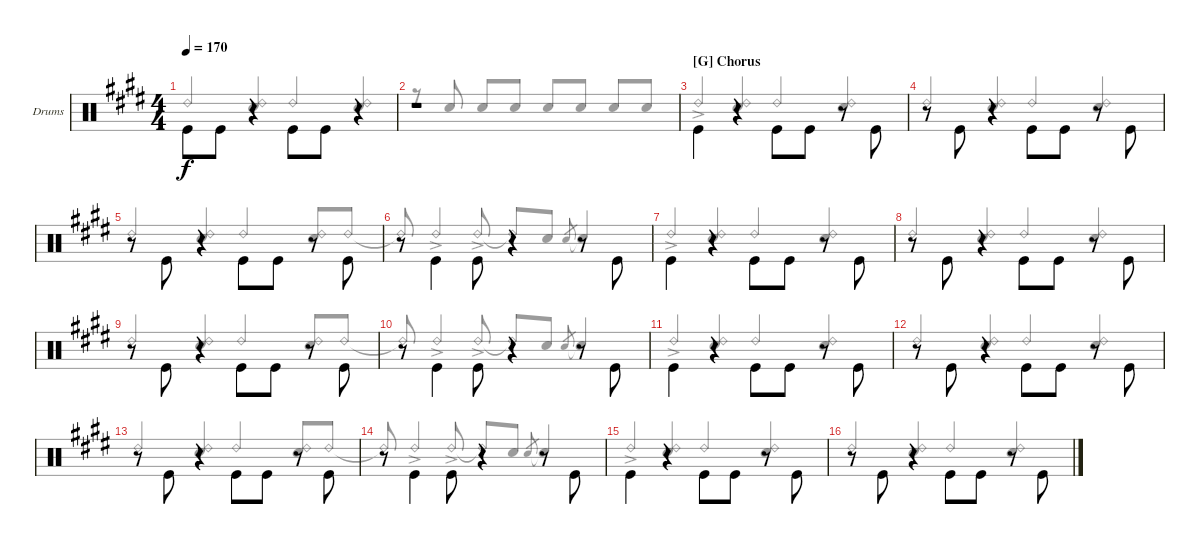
\bracketExtendMode groupsimilarinstruments
\firstSystemTrackNameOrientation horizontal
\otherSystemsTrackNameOrientation horizontal
\track ("Drums" "Drums") {instrument percussion}
\staff {score}
\articulation defaults
\voice
\ts (4 4)
\tempo 170
\clef neutral
\scale
1.06557
\ks e "Kick (hit)".8{dy f beam invert} "Kick (hit)".8
r.4 "Kick (hit)".8{beam invert} "Kick (hit)".8 r.4 |
\scale
0.934426 r.1 |
\section ("G" "Chorus")
\scale
1.06557 "Kick (hit)".4{beam invert} r.4{beam invert} "Kick (hit)".8{beam invert} "Kick (hit)".8 r.8 "Kick (hit)".8{beam invert} |
\scale
0.934426 r.8 "Kick (hit)".8{beam invert} r.4 "Kick (hit)".8{beam invert} "Kick (hit)".8 r.8 "Kick (hit)".8{beam invert} |
\scale
1.06557 r.8 "Kick (hit)".8{beam invert} r.4 "Kick (hit)".8{beam invert} "Kick (hit)".8 r.8 "Kick (hit)".8{beam invert} |
\scale
0.934426 r.8 "Kick (hit)".4{beam invert} "Kick (hit)".8{beam invert} r.4 r.8 "Kick (hit)".8{beam invert} |
\scale
1.06557 "Kick (hit)".4{beam invert} r.4{beam invert} "Kick (hit)".8{beam invert} "Kick (hit)".8 r.8 "Kick (hit)".8{beam invert} |
\scale
0.934426 r.8 "Kick (hit)".8{beam invert} r.4 "Kick (hit)".8{beam invert} "Kick (hit)".8 r.8 "Kick (hit)".8{beam invert} |
\scale
1.06557 r.8 "Kick (hit)".8{beam invert} r.4 "Kick (hit)".8{beam invert} "Kick (hit)".8 r.8 "Kick (hit)".8{beam invert} |
\scale
0.934426 r.8 "Kick (hit)".4{beam invert} "Kick (hit)".8{beam invert} r.4 r.8 "Kick (hit)".8{beam invert} |
\scale
1.06557 "Kick (hit)".4{beam invert} r.4{beam invert} "Kick (hit)".8{beam invert} "Kick (hit)".8 r.8 "Kick (hit)".8{beam invert} |
\scale
0.934426 r.8 "Kick (hit)".8{beam invert} r.4 "Kick (hit)".8{beam invert} "Kick (hit)".8 r.8 "Kick (hit)".8{beam invert} |
\scale
1.06557 r.8 "Kick (hit)".8{beam invert} r.4 "Kick (hit)".8{beam invert} "Kick (hit)".8 r.8 "Kick (hit)".8{beam invert} |
\scale
0.934426 r.8 "Kick (hit)".4{beam invert} "Kick (hit)".8{beam invert} r.4 r.8 "Kick (hit)".8{beam invert} |
\scale
1.06557 "Kick (hit)".4{beam invert} r.4{beam invert} "Kick (hit)".8{beam invert} "Kick (hit)".8 r.8 "Kick (hit)".8{beam invert} |
\scale
0.934426 r.8 "Kick (hit)".8{beam invert} r.4 "Kick (hit)".8{beam invert} "Kick (hit)".8 r.8 "Kick (hit)".8{beam invert}
\voice
\clef neutral
\ottava regular
\simile none
\scale
1.06557
\ks e "Ride (bell) 2".4{dy f beam invert}
("Ride (bell) 2" "Snare (hit) 2").4{beam invert} "Ride (bell) 2".4{beam invert} ("Ride (bell) 2" "Snare (hit) 2").4{beam invert} |
\scale
0.934426 r.8 "Snare (hit) 2".8{beam invert} "Snare (hit) 2".8{beam invert} "Snare (hit) 2".8 "Snare (hit) 2".8{beam invert} "Snare (hit) 2".8 "Snare (hit) 2".8{beam invert} "Snare (hit) 2".8 |
\scale
1.06557 "Ride (bell) 2"{ac}.4{beam invert} ("Ride (bell) 2" "Snare (hit) 2").4{beam invert} "Ride (bell) 2".4{beam invert} ("Ride (bell) 2" "Snare (hit) 2").4{beam invert} |
\scale
0.934426 "Ride (bell) 2".4{beam invert} ("Ride (bell) 2" "Snare (hit) 2").4{beam invert} "Ride (bell) 2".4{beam invert} ("Ride (bell) 2" "Snare (hit) 2").4{beam invert} |
\scale
1.06557 "Ride (bell) 2".4{beam invert} ("Ride (bell) 2" "Snare (hit) 2").4{beam invert} "Ride (bell) 2".4{beam invert} ("Ride (bell) 2" "Snare (hit) 2").8{beam invert} "Ride (bell) 2".8 |
\scale
0.934426 "Ride (bell) 2"{t}.8{beam invert} "Ride (bell) 2"{ac}.4{beam invert} "Ride (bell) 2"{ac}.8{beam invert} "Ride (bell) 2"{t}.8{beam invert} "Snare (hit) 2".8 "Snare (hit) 2".8{gr beam invert} "Snare (hit) 2"{t}.4{beam invert} |
\scale
1.06557 "Ride (bell) 2"{ac}.4{beam invert} ("Ride (bell) 2" "Snare (hit) 2").4{beam invert} "Ride (bell) 2".4{beam invert} ("Ride (bell) 2" "Snare (hit) 2").4{beam invert} |
\scale
0.934426 "Ride (bell) 2".4{beam invert} ("Ride (bell) 2" "Snare (hit) 2").4{beam invert} "Ride (bell) 2".4{beam invert} ("Ride (bell) 2" "Snare (hit) 2").4{beam invert} |
\scale
1.06557 "Ride (bell) 2".4{beam invert} ("Ride (bell) 2" "Snare (hit) 2").4{beam invert} "Ride (bell) 2".4{beam invert} ("Ride (bell) 2" "Snare (hit) 2").8{beam invert} "Ride (bell) 2".8 |
\scale
0.934426 "Ride (bell) 2"{t}.8{beam invert} "Ride (bell) 2"{ac}.4{beam invert} "Ride (bell) 2"{ac}.8{beam invert} "Ride (bell) 2"{t}.8{beam invert} "Snare (hit) 2".8 "Snare (hit) 2".8{gr beam invert} "Snare (hit) 2"{t}.4{beam invert} |
\scale
1.06557 "Ride (bell) 2"{ac}.4{beam invert} ("Ride (bell) 2" "Snare (hit) 2").4{beam invert} "Ride (bell) 2".4{beam invert} ("Ride (bell) 2" "Snare (hit) 2").4{beam invert} |
\scale
0.934426 "Ride (bell) 2".4{beam invert} ("Ride (bell) 2" "Snare (hit) 2").4{beam invert} "Ride (bell) 2".4{beam invert} ("Ride (bell) 2" "Snare (hit) 2").4{beam invert} |
\scale
1.06557 "Ride (bell) 2".4{beam invert} ("Ride (bell) 2" "Snare (hit) 2").4{beam invert} "Ride (bell) 2".4{beam invert} ("Ride (bell) 2" "Snare (hit) 2").8{beam invert} "Ride (bell) 2".8 |
\scale
0.934426 "Ride (bell) 2"{t}.8{beam invert} "Ride (bell) 2"{ac}.4{beam invert} "Ride (bell) 2"{ac}.8{beam invert} "Ride (bell) 2"{t}.8{beam invert} "Snare (hit) 2".8 "Snare (hit) 2".8{gr beam invert} "Snare (hit) 2"{t}.4{beam invert} |
\scale
1.06557 "Ride (bell) 2"{ac}.4{beam invert} ("Ride (bell) 2" "Snare (hit) 2").4{beam invert} "Ride (bell) 2".4{beam invert} ("Ride (bell) 2" "Snare (hit) 2").4{beam invert} |
\scale
0.934426 "Ride (bell) 2".4{beam invert} ("Ride (bell) 2" "Snare (hit) 2").4{beam invert} "Ride (bell) 2".4{beam invert} ("Ride (bell) 2" "Snare (hit) 2").4{beam invert}
